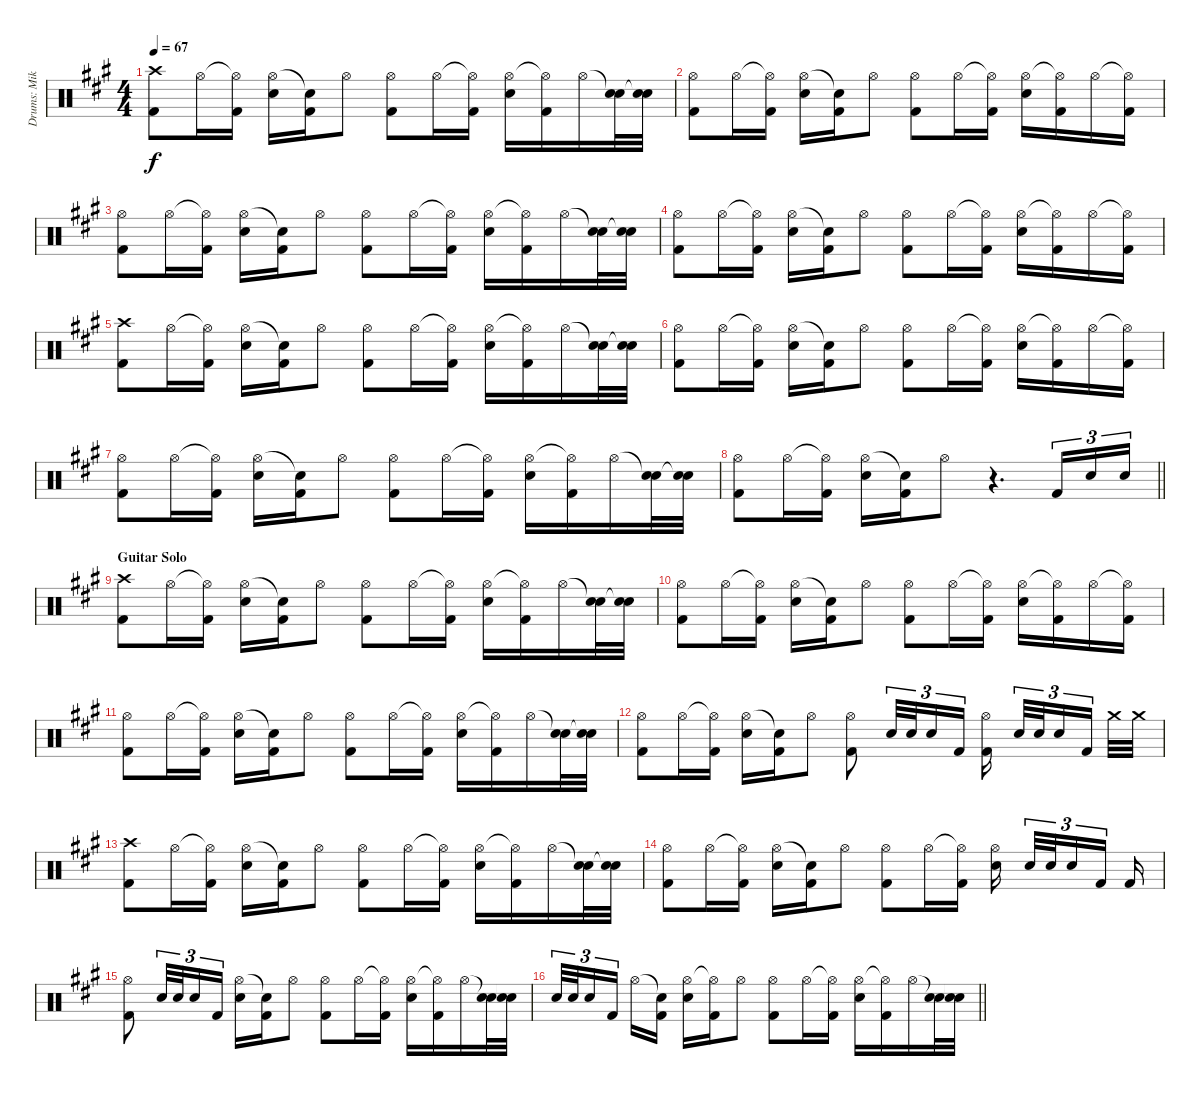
\track ("Drums: Mike" "Drums: Mik") {instrument percussion}
\staff {score}
\articulation defaults
\ts (4 4)
\tempo 67
\clef neutral
\ks a
("Crash high (hit)" "Kick (hit) 2").8{dy f} "Hi-Hat (open)".16 ("Hi-Hat (open)"{t} "Kick (hit) 2").16 ("Hi-Hat (open)" "Electric Snare (hit)").16 ("Snare (hit)"{t} "Kick (hit) 2").16 "Hi-Hat (open)".8 ("Hi-Hat (open)" "Kick (hit) 2").8 "Hi-Hat (open)".16 ("Hi-Hat (open)"{t} "Kick (hit) 2").16 ("Hi-Hat (open)" "Electric Snare (hit)").16 ("Hi-Hat (open)"{t} "Kick (hit) 2").16 "Hi-Hat (open)".16 ("Snare (hit)"{t} "Electric Snare (hit)").32 ("Snare (hit)"{t} "Electric Snare (hit)").32 |
("Hi-Hat (open)" "Kick (hit) 2").8 "Hi-Hat (open)".16 ("Hi-Hat (open)"{t} "Kick (hit) 2").16 ("Hi-Hat (open)" "Electric Snare (hit)").16 ("Snare (hit)"{t} "Kick (hit) 2").16 "Hi-Hat (open)".8 ("Hi-Hat (open)" "Kick (hit) 2").8 "Hi-Hat (open)".16 ("Hi-Hat (open)"{t} "Kick (hit) 2").16 ("Hi-Hat (open)" "Electric Snare (hit)").16 ("Hi-Hat (open)"{t} "Kick (hit) 2").16 "Hi-Hat (open)".16 ("Hi-Hat (open)"{t} "Kick (hit) 2").16 |
("Hi-Hat (open)" "Kick (hit) 2").8 "Hi-Hat (open)".16 ("Hi-Hat (open)"{t} "Kick (hit) 2").16 ("Hi-Hat (open)" "Electric Snare (hit)").16 ("Snare (hit)"{t} "Kick (hit) 2").16 "Hi-Hat (open)".8 ("Hi-Hat (open)" "Kick (hit) 2").8 "Hi-Hat (open)".16 ("Hi-Hat (open)"{t} "Kick (hit) 2").16 ("Hi-Hat (open)" "Electric Snare (hit)").16 ("Hi-Hat (open)"{t} "Kick (hit) 2").16 "Hi-Hat (open)".16 ("Snare (hit)"{t} "Electric Snare (hit)").32 ("Snare (hit)"{t} "Electric Snare (hit)").32 |
("Hi-Hat (open)" "Kick (hit) 2").8 "Hi-Hat (open)".16 ("Hi-Hat (open)"{t} "Kick (hit) 2").16 ("Hi-Hat (open)" "Electric Snare (hit)").16 ("Snare (hit)"{t} "Kick (hit) 2").16 "Hi-Hat (open)".8 ("Hi-Hat (open)" "Kick (hit) 2").8 "Hi-Hat (open)".16 ("Hi-Hat (open)"{t} "Kick (hit) 2").16 ("Hi-Hat (open)" "Electric Snare (hit)").16 ("Hi-Hat (open)"{t} "Kick (hit) 2").16 "Hi-Hat (open)".16 ("Hi-Hat (open)"{t} "Kick (hit) 2").16 |
("Crash high (hit)" "Kick (hit) 2").8 "Hi-Hat (open)".16 ("Hi-Hat (open)"{t} "Kick (hit) 2").16 ("Hi-Hat (open)" "Electric Snare (hit)").16 ("Snare (hit)"{t} "Kick (hit) 2").16 "Hi-Hat (open)".8 ("Hi-Hat (open)" "Kick (hit) 2").8 "Hi-Hat (open)".16 ("Hi-Hat (open)"{t} "Kick (hit) 2").16 ("Hi-Hat (open)" "Electric Snare (hit)").16 ("Hi-Hat (open)"{t} "Kick (hit) 2").16 "Hi-Hat (open)".16 ("Snare (hit)"{t} "Electric Snare (hit)").32 ("Snare (hit)"{t} "Electric Snare (hit)").32 |
("Hi-Hat (open)" "Kick (hit) 2").8 "Hi-Hat (open)".16 ("Hi-Hat (open)"{t} "Kick (hit) 2").16 ("Hi-Hat (open)" "Electric Snare (hit)").16 ("Snare (hit)"{t} "Kick (hit) 2").16 "Hi-Hat (open)".8 ("Hi-Hat (open)" "Kick (hit) 2").8 "Hi-Hat (open)".16 ("Hi-Hat (open)"{t} "Kick (hit) 2").16 ("Hi-Hat (open)" "Electric Snare (hit)").16 ("Hi-Hat (open)"{t} "Kick (hit) 2").16 "Hi-Hat (open)".16 ("Hi-Hat (open)"{t} "Kick (hit) 2").16 |
("Hi-Hat (open)" "Kick (hit) 2").8 "Hi-Hat (open)".16 ("Hi-Hat (open)"{t} "Kick (hit) 2").16 ("Hi-Hat (open)" "Electric Snare (hit)").16 ("Snare (hit)"{t} "Kick (hit) 2").16 "Hi-Hat (open)".8 ("Hi-Hat (open)" "Kick (hit) 2").8 "Hi-Hat (open)".16 ("Hi-Hat (open)"{t} "Kick (hit) 2").16 ("Hi-Hat (open)" "Electric Snare (hit)").16 ("Hi-Hat (open)"{t} "Kick (hit) 2").16 "Hi-Hat (open)".16 ("Snare (hit)"{t} "Electric Snare (hit)").32 ("Snare (hit)"{t} "Electric Snare (hit)").32 |
\barLineRight lightlight
("Hi-Hat (open)" "Kick (hit) 2").8 "Hi-Hat (open)".16 ("Hi-Hat (open)"{t} "Kick (hit) 2").16 ("Hi-Hat (open)" "Electric Snare (hit)").16 ("Snare (hit)"{t} "Kick (hit) 2").16 "Hi-Hat (open)".8 r.4{d} "Kick (hit) 2".16{tu (3 2)} "Electric Snare (hit)".16{tu (3 2)} "Electric Snare (hit)".16{tu (3 2)} |
\section ("" "Guitar Solo")
("Crash high (hit)" "Kick (hit) 2").8 "Hi-Hat (open)".16 ("Hi-Hat (open)"{t} "Kick (hit) 2").16 ("Hi-Hat (open)" "Electric Snare (hit)").16 ("Snare (hit)"{t} "Kick (hit) 2").16 "Hi-Hat (open)".8 ("Hi-Hat (open)" "Kick (hit) 2").8 "Hi-Hat (open)".16 ("Hi-Hat (open)"{t} "Kick (hit) 2").16 ("Hi-Hat (open)" "Electric Snare (hit)").16 ("Hi-Hat (open)"{t} "Kick (hit) 2").16 "Hi-Hat (open)".16 ("Snare (hit)"{t} "Electric Snare (hit)").32 ("Snare (hit)"{t} "Electric Snare (hit)").32 |
("Hi-Hat (open)" "Kick (hit) 2").8 "Hi-Hat (open)".16 ("Hi-Hat (open)"{t} "Kick (hit) 2").16 ("Hi-Hat (open)" "Electric Snare (hit)").16 ("Snare (hit)"{t} "Kick (hit) 2").16 "Hi-Hat (open)".8 ("Hi-Hat (open)" "Kick (hit) 2").8 "Hi-Hat (open)".16 ("Hi-Hat (open)"{t} "Kick (hit) 2").16 ("Hi-Hat (open)" "Electric Snare (hit)").16 ("Hi-Hat (open)"{t} "Kick (hit) 2").16 "Hi-Hat (open)".16 ("Hi-Hat (open)"{t} "Kick (hit) 2").16 |
("Hi-Hat (open)" "Kick (hit) 2").8 "Hi-Hat (open)".16 ("Hi-Hat (open)"{t} "Kick (hit) 2").16 ("Hi-Hat (open)" "Electric Snare (hit)").16 ("Snare (hit)"{t} "Kick (hit) 2").16 "Hi-Hat (open)".8 ("Hi-Hat (open)" "Kick (hit) 2").8 "Hi-Hat (open)".16 ("Hi-Hat (open)"{t} "Kick (hit) 2").16 ("Hi-Hat (open)" "Electric Snare (hit)").16 ("Hi-Hat (open)"{t} "Kick (hit) 2").16 "Hi-Hat (open)".16 ("Snare (hit)"{t} "Electric Snare (hit)").32 ("Snare (hit)"{t} "Electric Snare (hit)").32 |
("Hi-Hat (open)" "Kick (hit) 2").8 "Hi-Hat (open)".16 ("Hi-Hat (open)"{t} "Kick (hit) 2").16 ("Hi-Hat (open)" "Electric Snare (hit)").16 ("Snare (hit)"{t} "Kick (hit) 2").16 "Hi-Hat (open)".8 ("Hi-Hat (open)" "Kick (hit) 2").8 "Electric Snare (hit)".32{tu (3 2)} "Electric Snare (hit)".32{tu (3 2)} "Electric Snare (hit)".16{tu (3 2)} "Kick (hit) 2".16{tu (3 2)} ("Hi-Hat (open)" "Kick (hit) 2").16{beam splitsecondary} "Electric Snare (hit)".32{tu (3 2)} "Electric Snare (hit)".32{tu (3 2)} "Electric Snare (hit)".16{tu (3 2)} "Kick (hit) 2".16{tu (3 2) beam splitsecondary} "Crash medium (hit)".32 "Crash medium (hit)".32 |
("Crash high (hit)" "Kick (hit) 2").8 "Hi-Hat (open)".16 ("Hi-Hat (open)"{t} "Kick (hit) 2").16 ("Hi-Hat (open)" "Electric Snare (hit)").16 ("Snare (hit)"{t} "Kick (hit) 2").16 "Hi-Hat (open)".8 ("Hi-Hat (open)" "Kick (hit) 2").8 "Hi-Hat (open)".16 ("Hi-Hat (open)"{t} "Kick (hit) 2").16 ("Hi-Hat (open)" "Electric Snare (hit)").16 ("Hi-Hat (open)"{t} "Kick (hit) 2").16 "Hi-Hat (open)".16 ("Snare (hit)"{t} "Electric Snare (hit)").32 ("Snare (hit)"{t} "Electric Snare (hit)").32 |
("Hi-Hat (open)" "Kick (hit) 2").8 "Hi-Hat (open)".16 ("Hi-Hat (open)"{t} "Kick (hit) 2").16 ("Hi-Hat (open)" "Electric Snare (hit)").16 ("Snare (hit)"{t} "Kick (hit) 2").16 "Hi-Hat (open)".8 ("Hi-Hat (open)" "Kick (hit) 2").8 "Hi-Hat (open)".16 ("Hi-Hat (open)"{t} "Kick (hit) 2").16 ("Hi-Hat (open)" "Electric Snare (hit)").16{beam splitsecondary} "Electric Snare (hit)".32{tu (3 2)} "Electric Snare (hit)".32{tu (3 2)} "Electric Snare (hit)".16{tu (3 2)} "Kick (hit) 2".16{tu (3 2) beam splitsecondary} "Kick (hit) 2".16 |
("Hi-Hat (open)" "Kick (hit) 2").8 "Electric Snare (hit)".32{tu (3 2)} "Electric Snare (hit)".32{tu (3 2)} "Electric Snare (hit)".16{tu (3 2)} "Kick (hit) 2".16{tu (3 2)} ("Hi-Hat (open)" "Electric Snare (hit)").16 ("Snare (hit)"{t} "Kick (hit) 2").16 "Hi-Hat (open)".8 ("Hi-Hat (open)" "Kick (hit) 2").8 "Hi-Hat (open)".16 ("Hi-Hat (open)"{t} "Kick (hit) 2").16 ("Hi-Hat (open)" "Electric Snare (hit)").16 ("Hi-Hat (open)"{t} "Kick (hit) 2").16 "Hi-Hat (open)".16 ("Snare (hit)"{t} "Electric Snare (hit)").32 ("Snare (hit)"{t} "Electric Snare (hit)").32 |
\barLineRight lightlight "Electric Snare (hit)".32{tu (3 2)} "Electric Snare (hit)".32{tu (3 2)} "Electric Snare (hit)".16{tu (3 2)} "Kick (hit) 2".16{tu (3 2) beam splitsecondary} "Hi-Hat (open)".16
("Snare (hit)"{t} "Kick (hit) 2").16 ("Hi-Hat (open)" "Electric Snare (hit)").16 ("Hi-Hat (open)"{t} "Kick (hit) 2").16 "Hi-Hat (open)".8 ("Hi-Hat (open)" "Kick (hit) 2").8 "Hi-Hat (open)".16 ("Hi-Hat (open)"{t} "Kick (hit) 2").16 ("Hi-Hat (open)" "Electric Snare (hit)").16 ("Hi-Hat (open)"{t} "Kick (hit) 2").16 "Hi-Hat (open)".16 ("Snare (hit)"{t} "Electric Snare (hit)").32 ("Snare (hit)"{t} "Electric Snare (hit)").32
